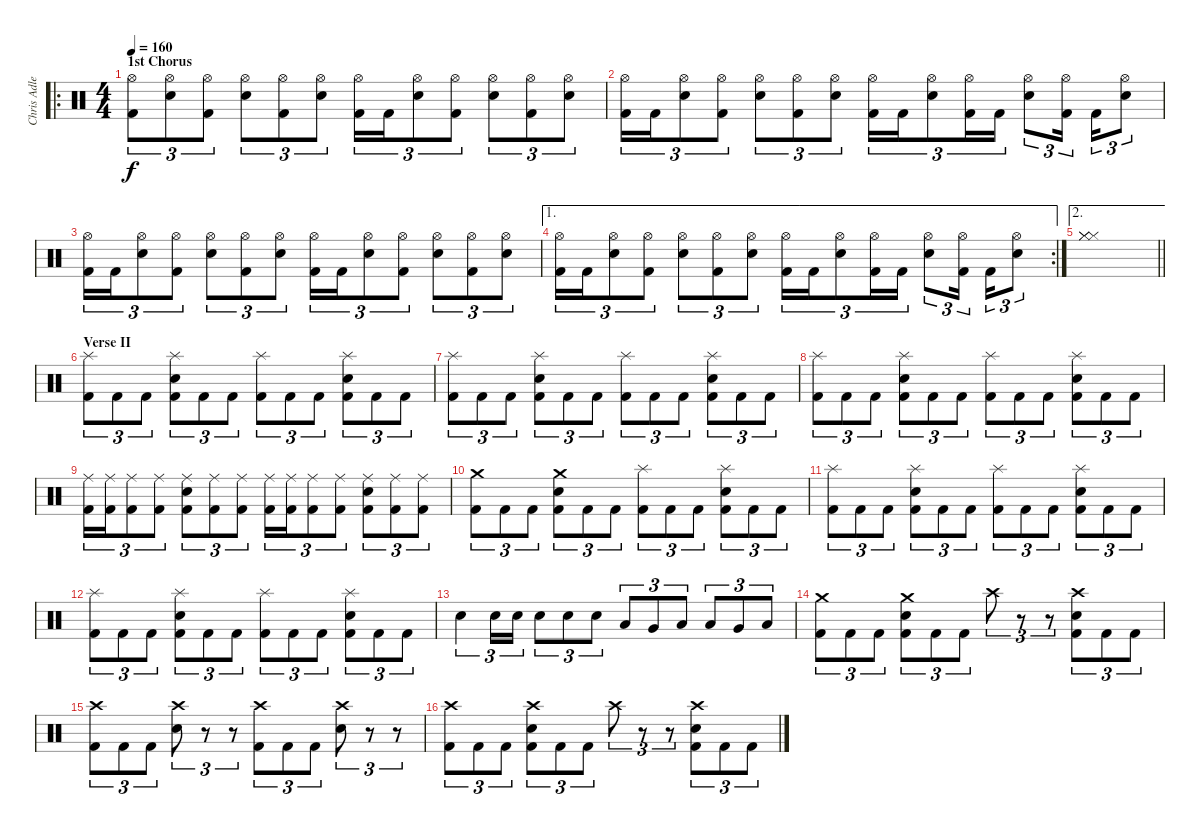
\track ("Chris Adler" "Chris Adle") {instrument percussion}
\staff {score}
\articulation defaults
\ro
\ts (4 4)
\section ("" "1st Chorus")
\tempo 160
\clef neutral
\ks c
("Hi-Hat (open)" "Kick (hit) 2").8{tu (3 2) dy f} ("Hi-Hat (open)" "Snare (hit) 2").8{tu (3 2)} ("Hi-Hat (open)" "Kick (hit) 2").8{tu (3 2)} ("Hi-Hat (open)" "Snare (hit) 2").8{tu (3 2)} ("Hi-Hat (open)" "Kick (hit) 2").8{tu (3 2)} ("Hi-Hat (open)" "Snare (hit) 2").8{tu (3 2)} ("Hi-Hat (open)" "Kick (hit) 2").16{tu (3 2)} "Kick (hit) 2".16{tu (3 2)} ("Hi-Hat (open)" "Snare (hit) 2").8{tu (3 2)} ("Hi-Hat (open)" "Kick (hit) 2").8{tu (3 2)} ("Hi-Hat (open)" "Snare (hit) 2").8{tu (3 2)} ("Hi-Hat (open)" "Kick (hit) 2").8{tu (3 2)} ("Hi-Hat (open)" "Snare (hit) 2").8{tu (3 2)} |
("Hi-Hat (open)" "Kick (hit) 2").16{tu (3 2)} "Kick (hit) 2".16{tu (3 2)} ("Hi-Hat (open)" "Snare (hit) 2").8{tu (3 2)} ("Hi-Hat (open)" "Kick (hit) 2").8{tu (3 2)} ("Hi-Hat (open)" "Snare (hit) 2").8{tu (3 2)} ("Hi-Hat (open)" "Kick (hit) 2").8{tu (3 2)} ("Hi-Hat (open)" "Snare (hit) 2").8{tu (3 2)} ("Hi-Hat (open)" "Kick (hit) 2").16{tu (3 2)} "Kick (hit) 2".16{tu (3 2)} ("Hi-Hat (open)" "Snare (hit) 2").8{tu (3 2)} ("Hi-Hat (open)" "Kick (hit) 2").16{tu (3 2)} "Kick (hit) 2".16{tu (3 2)} ("Hi-Hat (open)" "Snare (hit) 2").8{tu (3 2)} ("Hi-Hat (open)" "Kick (hit) 2").16{tu (3 2) beam splitsecondary} "Kick (hit) 2".16{tu (3 2)} ("Hi-Hat (open)" "Snare (hit) 2").8{tu (3 2)} |
("Hi-Hat (open)" "Kick (hit) 2").16{tu (3 2)} "Kick (hit) 2".16{tu (3 2)} ("Hi-Hat (open)" "Snare (hit) 2").8{tu (3 2)} ("Hi-Hat (open)" "Kick (hit) 2").8{tu (3 2)} ("Hi-Hat (open)" "Snare (hit) 2").8{tu (3 2)} ("Hi-Hat (open)" "Kick (hit) 2").8{tu (3 2)} ("Hi-Hat (open)" "Snare (hit) 2").8{tu (3 2)} ("Hi-Hat (open)" "Kick (hit) 2").16{tu (3 2)} "Kick (hit) 2".16{tu (3 2)} ("Hi-Hat (open)" "Snare (hit) 2").8{tu (3 2)} ("Hi-Hat (open)" "Kick (hit) 2").8{tu (3 2)} ("Hi-Hat (open)" "Snare (hit) 2").8{tu (3 2)} ("Hi-Hat (open)" "Kick (hit) 2").8{tu (3 2)} ("Hi-Hat (open)" "Snare (hit) 2").8{tu (3 2)} |
\ae 1
\rc 2
("Hi-Hat (open)" "Kick (hit) 2").16{tu (3 2)} "Kick (hit) 2".16{tu (3 2)} ("Hi-Hat (open)" "Snare (hit) 2").8{tu (3 2)} ("Hi-Hat (open)" "Kick (hit) 2").8{tu (3 2)} ("Hi-Hat (open)" "Snare (hit) 2").8{tu (3 2)} ("Hi-Hat (open)" "Kick (hit) 2").8{tu (3 2)} ("Hi-Hat (open)" "Snare (hit) 2").8{tu (3 2)} ("Hi-Hat (open)" "Kick (hit) 2").16{tu (3 2)} "Kick (hit) 2".16{tu (3 2)} ("Hi-Hat (open)" "Snare (hit) 2").8{tu (3 2)} ("Hi-Hat (open)" "Kick (hit) 2").16{tu (3 2)} "Kick (hit) 2".16{tu (3 2)} ("Hi-Hat (open)" "Snare (hit) 2").8{tu (3 2)} ("Hi-Hat (open)" "Kick (hit) 2").16{tu (3 2) beam splitsecondary} "Kick (hit) 2".16{tu (3 2)} ("Hi-Hat (open)" "Snare (hit) 2").8{tu (3 2)} |
\ae 2
\barLineRight lightlight
("Hi-Hat (closed)" "Hi-Hat (closed)" "Hi-Hat (closed)").1 |
\section ("" "Verse II")
("Splash (hit)" "Kick (hit) 2").8{tu (3 2)} "Kick (hit) 2".8{tu (3 2)} "Kick (hit) 2".8{tu (3 2)} ("Splash (hit)" "Snare (hit) 2" "Kick (hit) 2").8{tu (3 2)} "Kick (hit) 2".8{tu (3 2)} "Kick (hit) 2".8{tu (3 2)} ("Splash (hit)" "Kick (hit) 2").8{tu (3 2)} "Kick (hit) 2".8{tu (3 2)} "Kick (hit) 2".8{tu (3 2)} ("Splash (hit)" "Snare (hit) 2" "Kick (hit) 2").8{tu (3 2)} "Kick (hit) 2".8{tu (3 2)} "Kick (hit) 2".8{tu (3 2)} |
("Splash (hit)" "Kick (hit) 2").8{tu (3 2)} "Kick (hit) 2".8{tu (3 2)} "Kick (hit) 2".8{tu (3 2)} ("Splash (hit)" "Snare (hit) 2" "Kick (hit) 2").8{tu (3 2)} "Kick (hit) 2".8{tu (3 2)} "Kick (hit) 2".8{tu (3 2)} ("Splash (hit)" "Kick (hit) 2").8{tu (3 2)} "Kick (hit) 2".8{tu (3 2)} "Kick (hit) 2".8{tu (3 2)} ("Splash (hit)" "Snare (hit) 2" "Kick (hit) 2").8{tu (3 2)} "Kick (hit) 2".8{tu (3 2)} "Kick (hit) 2".8{tu (3 2)} |
("Splash (hit)" "Kick (hit) 2").8{tu (3 2)} "Kick (hit) 2".8{tu (3 2)} "Kick (hit) 2".8{tu (3 2)} ("Splash (hit)" "Snare (hit) 2" "Kick (hit) 2").8{tu (3 2)} "Kick (hit) 2".8{tu (3 2)} "Kick (hit) 2".8{tu (3 2)} ("Splash (hit)" "Kick (hit) 2").8{tu (3 2)} "Kick (hit) 2".8{tu (3 2)} "Kick (hit) 2".8{tu (3 2)} ("Splash (hit)" "Snare (hit) 2" "Kick (hit) 2").8{tu (3 2)} "Kick (hit) 2".8{tu (3 2)} "Kick (hit) 2".8{tu (3 2)} |
("Ride (middle)" "Kick (hit) 2").16{tu (3 2)} ("Ride (middle)" "Kick (hit) 2").16{tu (3 2)} ("Ride (middle)" "Kick (hit) 2").8{tu (3 2)} ("Ride (middle)" "Kick (hit) 2").8{tu (3 2)} ("Ride (middle)" "Snare (hit) 2" "Kick (hit) 2").8{tu (3 2)} ("Ride (middle)" "Kick (hit) 2").8{tu (3 2)} ("Ride (middle)" "Kick (hit) 2").8{tu (3 2)} ("Ride (middle)" "Kick (hit) 2").16{tu (3 2)} ("Ride (middle)" "Kick (hit) 2").16{tu (3 2)} ("Ride (middle)" "Kick (hit) 2").8{tu (3 2)} ("Ride (middle)" "Kick (hit) 2").8{tu (3 2)} ("Ride (middle)" "Snare (hit) 2" "Kick (hit) 2").8{tu (3 2)} ("Ride (middle)" "Kick (hit) 2").8{tu (3 2)} ("Ride (middle)" "Kick (hit) 2").8{tu (3 2)} |
("Crash medium (hit)" "Kick (hit) 2").8{tu (3 2)} "Kick (hit) 2".8{tu (3 2)} "Kick (hit) 2".8{tu (3 2)} ("Crash medium (hit)" "Snare (hit) 2" "Kick (hit) 2").8{tu (3 2)} "Kick (hit) 2".8{tu (3 2)} "Kick (hit) 2".8{tu (3 2)} ("Splash (hit)" "Kick (hit) 2").8{tu (3 2)} "Kick (hit) 2".8{tu (3 2)} "Kick (hit) 2".8{tu (3 2)} ("Splash (hit)" "Snare (hit) 2" "Kick (hit) 2").8{tu (3 2)} "Kick (hit) 2".8{tu (3 2)} "Kick (hit) 2".8{tu (3 2)} |
("Splash (hit)" "Kick (hit) 2").8{tu (3 2)} "Kick (hit) 2".8{tu (3 2)} "Kick (hit) 2".8{tu (3 2)} ("Splash (hit)" "Snare (hit) 2" "Kick (hit) 2").8{tu (3 2)} "Kick (hit) 2".8{tu (3 2)} "Kick (hit) 2".8{tu (3 2)} ("Splash (hit)" "Kick (hit) 2").8{tu (3 2)} "Kick (hit) 2".8{tu (3 2)} "Kick (hit) 2".8{tu (3 2)} ("Splash (hit)" "Snare (hit) 2" "Kick (hit) 2").8{tu (3 2)} "Kick (hit) 2".8{tu (3 2)} "Kick (hit) 2".8{tu (3 2)} |
("Splash (hit)" "Kick (hit) 2").8{tu (3 2)} "Kick (hit) 2".8{tu (3 2)} "Kick (hit) 2".8{tu (3 2)} ("Splash (hit)" "Snare (hit) 2" "Kick (hit) 2").8{tu (3 2)} "Kick (hit) 2".8{tu (3 2)} "Kick (hit) 2".8{tu (3 2)} ("Splash (hit)" "Kick (hit) 2").8{tu (3 2)} "Kick (hit) 2".8{tu (3 2)} "Kick (hit) 2".8{tu (3 2)} ("Splash (hit)" "Snare (hit) 2" "Kick (hit) 2").8{tu (3 2)} "Kick (hit) 2".8{tu (3 2)} "Kick (hit) 2".8{tu (3 2)} |
"Electric Snare (hit)".4{tu (3 2)} "Electric Snare (hit)".16{tu (3 2)} "Electric Snare (hit)".16{tu (3 2)} "Electric Snare (hit)".8{tu (3 2)} "Electric Snare (hit)".8{tu (3 2)} "Electric Snare (hit)".8{tu (3 2)} "Low Tom (hit)".8{tu (3 2)} "Very Low Tom (hit)".8{tu (3 2)} "Low Floor Tom (hit)".8{tu (3 2)} "Low Tom (hit)".8{tu (3 2)} "Very Low Tom (hit)".8{tu (3 2)} "Low Floor Tom (hit)".8{tu (3 2)} |
("Crash medium (hit)" "Kick (hit) 2").8{tu (3 2)} "Kick (hit) 2".8{tu (3 2)} "Kick (hit) 2".8{tu (3 2)} ("Crash medium (hit)" "Snare (hit) 2" "Kick (hit) 2").8{tu (3 2)} "Kick (hit) 2".8{tu (3 2)} "Kick (hit) 2".8{tu (3 2)} "Crash high (hit)".8{tu (3 2)} r.8{tu (3 2)} r.8{tu (3 2)} ("Crash high (hit)" "Snare (hit) 2" "Kick (hit) 2").8{tu (3 2)} "Kick (hit) 2".8{tu (3 2)} "Kick (hit) 2".8{tu (3 2)} |
("Crash high (hit)" "Kick (hit) 2").8{tu (3 2)} "Kick (hit) 2".8{tu (3 2)} "Kick (hit) 2".8{tu (3 2)} ("Crash high (hit)" "Snare (hit) 2").8{tu (3 2)} r.8{tu (3 2)} r.8{tu (3 2)} ("Crash high (hit)" "Kick (hit) 2").8{tu (3 2)} "Kick (hit) 2".8{tu (3 2)} "Kick (hit) 2".8{tu (3 2)} ("Crash high (hit)" "Snare (hit) 2").8{tu (3 2)} r.8{tu (3 2)} r.8{tu (3 2)} |
("Crash high (hit)" "Kick (hit) 2").8{tu (3 2)} "Kick (hit) 2".8{tu (3 2)} "Kick (hit) 2".8{tu (3 2)} ("Crash high (hit)" "Snare (hit) 2" "Kick (hit) 2").8{tu (3 2)} "Kick (hit) 2".8{tu (3 2)} "Kick (hit) 2".8{tu (3 2)} "Crash high (hit)".8{tu (3 2)} r.8{tu (3 2)} r.8{tu (3 2)} ("Crash high (hit)" "Snare (hit) 2" "Kick (hit) 2").8{tu (3 2)} "Kick (hit) 2".8{tu (3 2)} "Kick (hit) 2".8{tu (3 2)}
